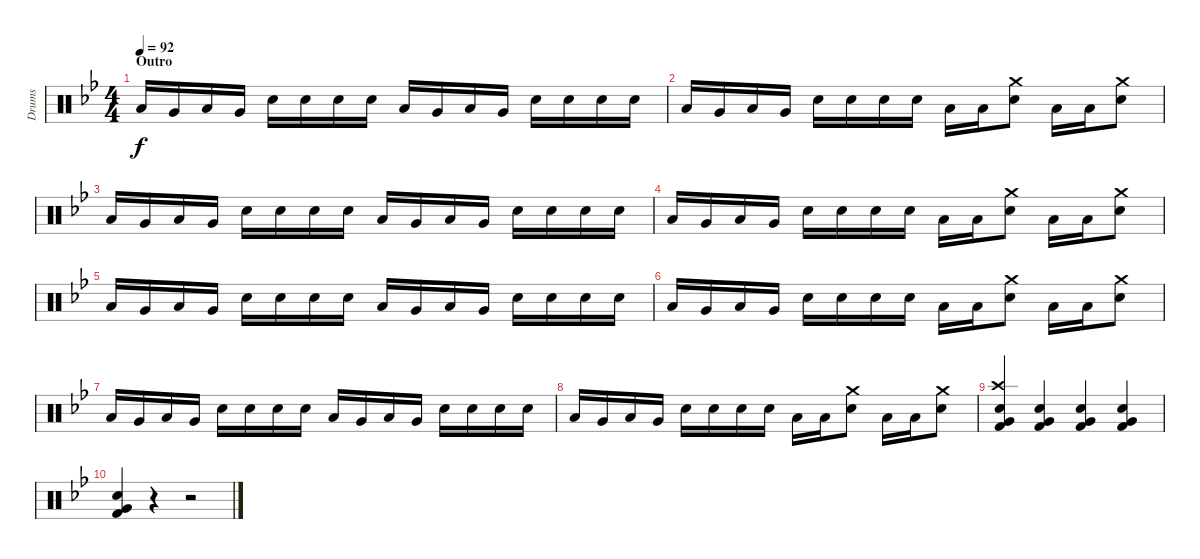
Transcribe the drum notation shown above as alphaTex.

\track ("Drums" "Drums") {instrument percussion}
\staff {score}
\articulation defaults
\ts (4 4)
\section ("" "Outro")
\tempo 92
\clef neutral
\ks gminor "Low Floor Tom (hit)".16{dy f} "Very Low Tom (hit)".16 "Low Floor Tom (hit)".16 "Very Low Tom (hit)".16 "Snare (hit) 2".16 "Snare (hit) 2".16 "Snare (hit) 2".16 "Snare (hit) 2".16 "Low Floor Tom (hit)".16 "Very Low Tom (hit)".16 "Low Floor Tom (hit)".16 "Very Low Tom (hit)".16 "Snare (hit) 2".16 "Snare (hit) 2".16 "Snare (hit) 2".16 "Snare (hit) 2".16
|
"Low Floor Tom (hit)".16 "Very Low Tom (hit)".16 "Low Floor Tom (hit)".16 "Very Low Tom (hit)".16 "Snare (hit) 2".16 "Snare (hit) 2".16 "Snare (hit) 2".16 "Snare (hit) 2".16 "Low Floor Tom (hit)".16 "Low Floor Tom (hit)".16 ("Crash medium (hit)" "Snare (hit) 2").8 "Low Floor Tom (hit)".16 "Low Floor Tom (hit)".16 ("Crash medium (hit)" "Snare (hit) 2").8 |
"Low Floor Tom (hit)".16 "Very Low Tom (hit)".16 "Low Floor Tom (hit)".16 "Very Low Tom (hit)".16 "Snare (hit) 2".16 "Snare (hit) 2".16 "Snare (hit) 2".16 "Snare (hit) 2".16 "Low Floor Tom (hit)".16 "Very Low Tom (hit)".16 "Low Floor Tom (hit)".16 "Very Low Tom (hit)".16 "Snare (hit) 2".16 "Snare (hit) 2".16 "Snare (hit) 2".16 "Snare (hit) 2".16 |
"Low Floor Tom (hit)".16 "Very Low Tom (hit)".16 "Low Floor Tom (hit)".16 "Very Low Tom (hit)".16 "Snare (hit) 2".16 "Snare (hit) 2".16 "Snare (hit) 2".16 "Snare (hit) 2".16 "Low Floor Tom (hit)".16 "Low Floor Tom (hit)".16 ("Crash medium (hit)" "Snare (hit) 2").8 "Low Floor Tom (hit)".16 "Low Floor Tom (hit)".16 ("Crash medium (hit)" "Snare (hit) 2").8 |
"Low Floor Tom (hit)".16 "Very Low Tom (hit)".16 "Low Floor Tom (hit)".16 "Very Low Tom (hit)".16 "Snare (hit) 2".16 "Snare (hit) 2".16 "Snare (hit) 2".16 "Snare (hit) 2".16 "Low Floor Tom (hit)".16 "Very Low Tom (hit)".16 "Low Floor Tom (hit)".16 "Very Low Tom (hit)".16 "Snare (hit) 2".16 "Snare (hit) 2".16 "Snare (hit) 2".16 "Snare (hit) 2".16 |
"Low Floor Tom (hit)".16 "Very Low Tom (hit)".16 "Low Floor Tom (hit)".16 "Very Low Tom (hit)".16 "Snare (hit) 2".16 "Snare (hit) 2".16 "Snare (hit) 2".16 "Snare (hit) 2".16 "Low Floor Tom (hit)".16 "Low Floor Tom (hit)".16 ("Crash medium (hit)" "Snare (hit) 2").8 "Low Floor Tom (hit)".16 "Low Floor Tom (hit)".16 ("Crash medium (hit)" "Snare (hit) 2").8 |
"Low Floor Tom (hit)".16 "Very Low Tom (hit)".16 "Low Floor Tom (hit)".16 "Very Low Tom (hit)".16 "Snare (hit) 2".16 "Snare (hit) 2".16 "Snare (hit) 2".16 "Snare (hit) 2".16 "Low Floor Tom (hit)".16 "Very Low Tom (hit)".16 "Low Floor Tom (hit)".16 "Very Low Tom (hit)".16 "Snare (hit) 2".16 "Snare (hit) 2".16 "Snare (hit) 2".16 "Snare (hit) 2".16 |
"Low Floor Tom (hit)".16 "Very Low Tom (hit)".16 "Low Floor Tom (hit)".16 "Very Low Tom (hit)".16 "Snare (hit) 2".16 "Snare (hit) 2".16 "Snare (hit) 2".16 "Snare (hit) 2".16 "Low Floor Tom (hit)".16 "Low Floor Tom (hit)".16 ("Crash medium (hit)" "Snare (hit) 2").8 "Low Floor Tom (hit)".16 "Low Floor Tom (hit)".16 ("Crash medium (hit)" "Snare (hit) 2").8 |
("Crash high (hit)" "Very Low Tom (hit)" "Snare (hit) 2" "Kick (hit) 2").4 ("Very Low Tom (hit)" "Snare (hit) 2" "Kick (hit) 2").4 ("Very Low Tom (hit)" "Snare (hit) 2" "Kick (hit) 2").4 ("Very Low Tom (hit)" "Snare (hit) 2" "Kick (hit) 2").4 |
("Very Low Tom (hit)" "Snare (hit) 2" "Kick (hit) 2").4 r.4 r.2
